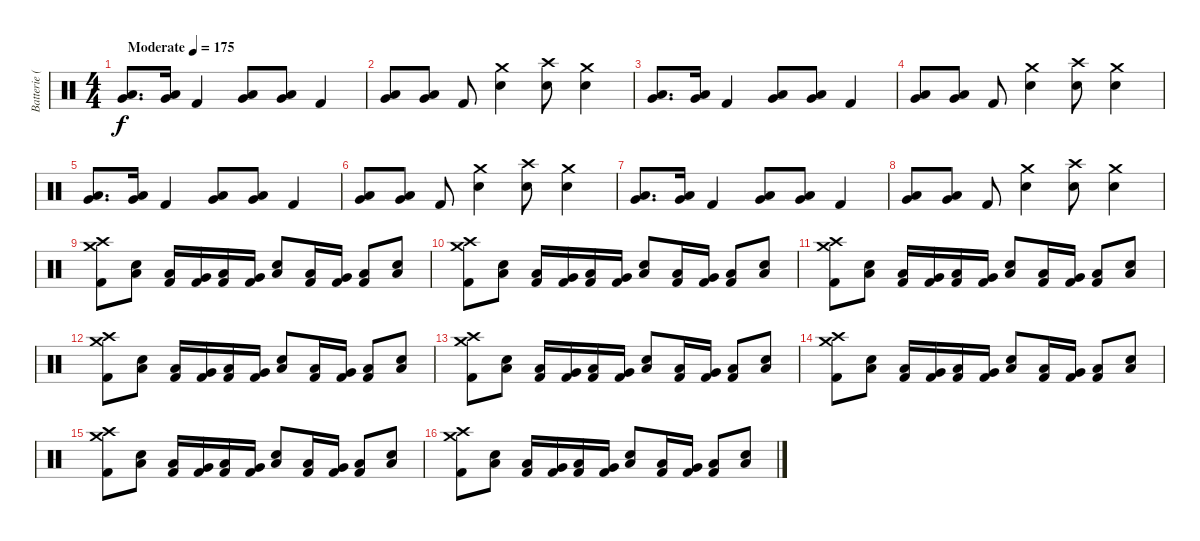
\track ("Batterie (Tré Cool)" "Batterie (") {instrument percussion}
\staff {score}
\articulation defaults
\ts (4 4)
\tempo (175 "Moderate")
\clef neutral
\ks c
("Very Low Tom (hit)" "Low Tom (hit)").8{d dy f} ("Very Low Tom (hit)" "Low Tom (hit)").16 "Kick (hit) 2".4 ("Low Floor Tom (hit)" "Very Low Tom (hit)").8 ("Low Floor Tom (hit)" "Very Low Tom (hit)").8 "Kick (hit) 2".4 |
("Very Low Tom (hit)" "Low Tom (hit)").8 ("Very Low Tom (hit)" "Low Tom (hit)").8 "Kick (hit) 2".8 ("Crash medium (hit)" "Electric Snare (hit)").4 ("Crash high (hit)" "Electric Snare (hit)").8 ("Crash medium (hit)" "Electric Snare (hit)").4 |
("Very Low Tom (hit)" "Low Tom (hit)").8{d} ("Very Low Tom (hit)" "Low Tom (hit)").16 "Kick (hit) 2".4 ("Low Floor Tom (hit)" "Very Low Tom (hit)").8 ("Low Floor Tom (hit)" "Very Low Tom (hit)").8 "Kick (hit) 2".4 |
("Very Low Tom (hit)" "Low Tom (hit)").8 ("Very Low Tom (hit)" "Low Tom (hit)").8 "Kick (hit) 2".8 ("Crash medium (hit)" "Electric Snare (hit)").4 ("Crash high (hit)" "Electric Snare (hit)").8 ("Crash medium (hit)" "Electric Snare (hit)").4 |
("Very Low Tom (hit)" "Low Tom (hit)").8{d} ("Very Low Tom (hit)" "Low Tom (hit)").16 "Kick (hit) 2".4 ("Low Floor Tom (hit)" "Very Low Tom (hit)").8 ("Low Floor Tom (hit)" "Very Low Tom (hit)").8 "Kick (hit) 2".4 |
("Very Low Tom (hit)" "Low Tom (hit)").8 ("Very Low Tom (hit)" "Low Tom (hit)").8 "Kick (hit) 2".8 ("Crash medium (hit)" "Electric Snare (hit)").4 ("Crash high (hit)" "Electric Snare (hit)").8 ("Crash medium (hit)" "Electric Snare (hit)").4 |
("Very Low Tom (hit)" "Low Tom (hit)").8{d} ("Very Low Tom (hit)" "Low Tom (hit)").16 "Kick (hit) 2".4 ("Low Floor Tom (hit)" "Very Low Tom (hit)").8 ("Low Floor Tom (hit)" "Very Low Tom (hit)").8 "Kick (hit) 2".4 |
("Very Low Tom (hit)" "Low Tom (hit)").8 ("Very Low Tom (hit)" "Low Tom (hit)").8 "Kick (hit) 2".8 ("Crash medium (hit)" "Electric Snare (hit)").4 ("Crash high (hit)" "Electric Snare (hit)").8 ("Crash medium (hit)" "Electric Snare (hit)").4 |
("Crash medium (hit)" "Crash high (hit)" "Kick (hit) 2").8 ("Low Floor Tom (hit)" "Electric Snare (hit)").8 ("Low Floor Tom (hit)" "Kick (hit) 2").16 ("Very Low Tom (hit)" "Kick (hit) 2").16 ("Low Floor Tom (hit)" "Kick (hit) 2").16 ("Very Low Tom (hit)" "Kick (hit) 2").16 ("Low Floor Tom (hit)" "Electric Snare (hit)").8 ("Low Floor Tom (hit)" "Kick (hit) 2").16 ("Very Low Tom (hit)" "Kick (hit) 2").16 ("Low Floor Tom (hit)" "Kick (hit) 2").8 ("Low Floor Tom (hit)" "Electric Snare (hit)").8 |
("Crash medium (hit)" "Crash high (hit)" "Kick (hit) 2").8 ("Low Floor Tom (hit)" "Electric Snare (hit)").8 ("Low Floor Tom (hit)" "Kick (hit) 2").16 ("Very Low Tom (hit)" "Kick (hit) 2").16 ("Low Floor Tom (hit)" "Kick (hit) 2").16 ("Very Low Tom (hit)" "Kick (hit) 2").16 ("Low Floor Tom (hit)" "Electric Snare (hit)").8 ("Low Floor Tom (hit)" "Kick (hit) 2").16 ("Very Low Tom (hit)" "Kick (hit) 2").16 ("Low Floor Tom (hit)" "Kick (hit) 2").8 ("Low Floor Tom (hit)" "Electric Snare (hit)").8 |
("Crash medium (hit)" "Crash high (hit)" "Kick (hit) 2").8 ("Low Floor Tom (hit)" "Electric Snare (hit)").8 ("Low Floor Tom (hit)" "Kick (hit) 2").16 ("Very Low Tom (hit)" "Kick (hit) 2").16 ("Low Floor Tom (hit)" "Kick (hit) 2").16 ("Very Low Tom (hit)" "Kick (hit) 2").16 ("Low Floor Tom (hit)" "Electric Snare (hit)").8 ("Low Floor Tom (hit)" "Kick (hit) 2").16 ("Very Low Tom (hit)" "Kick (hit) 2").16 ("Low Floor Tom (hit)" "Kick (hit) 2").8 ("Low Floor Tom (hit)" "Electric Snare (hit)").8 |
("Crash medium (hit)" "Crash high (hit)" "Kick (hit) 2").8 ("Low Floor Tom (hit)" "Electric Snare (hit)").8 ("Low Floor Tom (hit)" "Kick (hit) 2").16 ("Very Low Tom (hit)" "Kick (hit) 2").16 ("Low Floor Tom (hit)" "Kick (hit) 2").16 ("Very Low Tom (hit)" "Kick (hit) 2").16 ("Low Floor Tom (hit)" "Electric Snare (hit)").8 ("Low Floor Tom (hit)" "Kick (hit) 2").16 ("Very Low Tom (hit)" "Kick (hit) 2").16 ("Low Floor Tom (hit)" "Kick (hit) 2").8 ("Low Floor Tom (hit)" "Electric Snare (hit)").8 |
("Crash medium (hit)" "Crash high (hit)" "Kick (hit) 2").8 ("Low Floor Tom (hit)" "Electric Snare (hit)").8 ("Low Floor Tom (hit)" "Kick (hit) 2").16 ("Very Low Tom (hit)" "Kick (hit) 2").16 ("Low Floor Tom (hit)" "Kick (hit) 2").16 ("Very Low Tom (hit)" "Kick (hit) 2").16 ("Low Floor Tom (hit)" "Electric Snare (hit)").8 ("Low Floor Tom (hit)" "Kick (hit) 2").16 ("Very Low Tom (hit)" "Kick (hit) 2").16 ("Low Floor Tom (hit)" "Kick (hit) 2").8 ("Low Floor Tom (hit)" "Electric Snare (hit)").8 |
("Crash medium (hit)" "Crash high (hit)" "Kick (hit) 2").8 ("Low Floor Tom (hit)" "Electric Snare (hit)").8 ("Low Floor Tom (hit)" "Kick (hit) 2").16 ("Very Low Tom (hit)" "Kick (hit) 2").16 ("Low Floor Tom (hit)" "Kick (hit) 2").16 ("Very Low Tom (hit)" "Kick (hit) 2").16 ("Low Floor Tom (hit)" "Electric Snare (hit)").8 ("Low Floor Tom (hit)" "Kick (hit) 2").16 ("Very Low Tom (hit)" "Kick (hit) 2").16 ("Low Floor Tom (hit)" "Kick (hit) 2").8 ("Low Floor Tom (hit)" "Electric Snare (hit)").8 |
("Crash medium (hit)" "Crash high (hit)" "Kick (hit) 2").8 ("Low Floor Tom (hit)" "Electric Snare (hit)").8 ("Low Floor Tom (hit)" "Kick (hit) 2").16 ("Very Low Tom (hit)" "Kick (hit) 2").16 ("Low Floor Tom (hit)" "Kick (hit) 2").16 ("Very Low Tom (hit)" "Kick (hit) 2").16 ("Low Floor Tom (hit)" "Electric Snare (hit)").8 ("Low Floor Tom (hit)" "Kick (hit) 2").16 ("Very Low Tom (hit)" "Kick (hit) 2").16 ("Low Floor Tom (hit)" "Kick (hit) 2").8 ("Low Floor Tom (hit)" "Electric Snare (hit)").8 |
("Crash medium (hit)" "Crash high (hit)" "Kick (hit) 2").8 ("Low Floor Tom (hit)" "Electric Snare (hit)").8 ("Low Floor Tom (hit)" "Kick (hit) 2").16 ("Very Low Tom (hit)" "Kick (hit) 2").16 ("Low Floor Tom (hit)" "Kick (hit) 2").16 ("Very Low Tom (hit)" "Kick (hit) 2").16 ("Low Floor Tom (hit)" "Electric Snare (hit)").8 ("Low Floor Tom (hit)" "Kick (hit) 2").16 ("Very Low Tom (hit)" "Kick (hit) 2").16 ("Low Floor Tom (hit)" "Kick (hit) 2").8 ("Low Floor Tom (hit)" "Electric Snare (hit)").8
